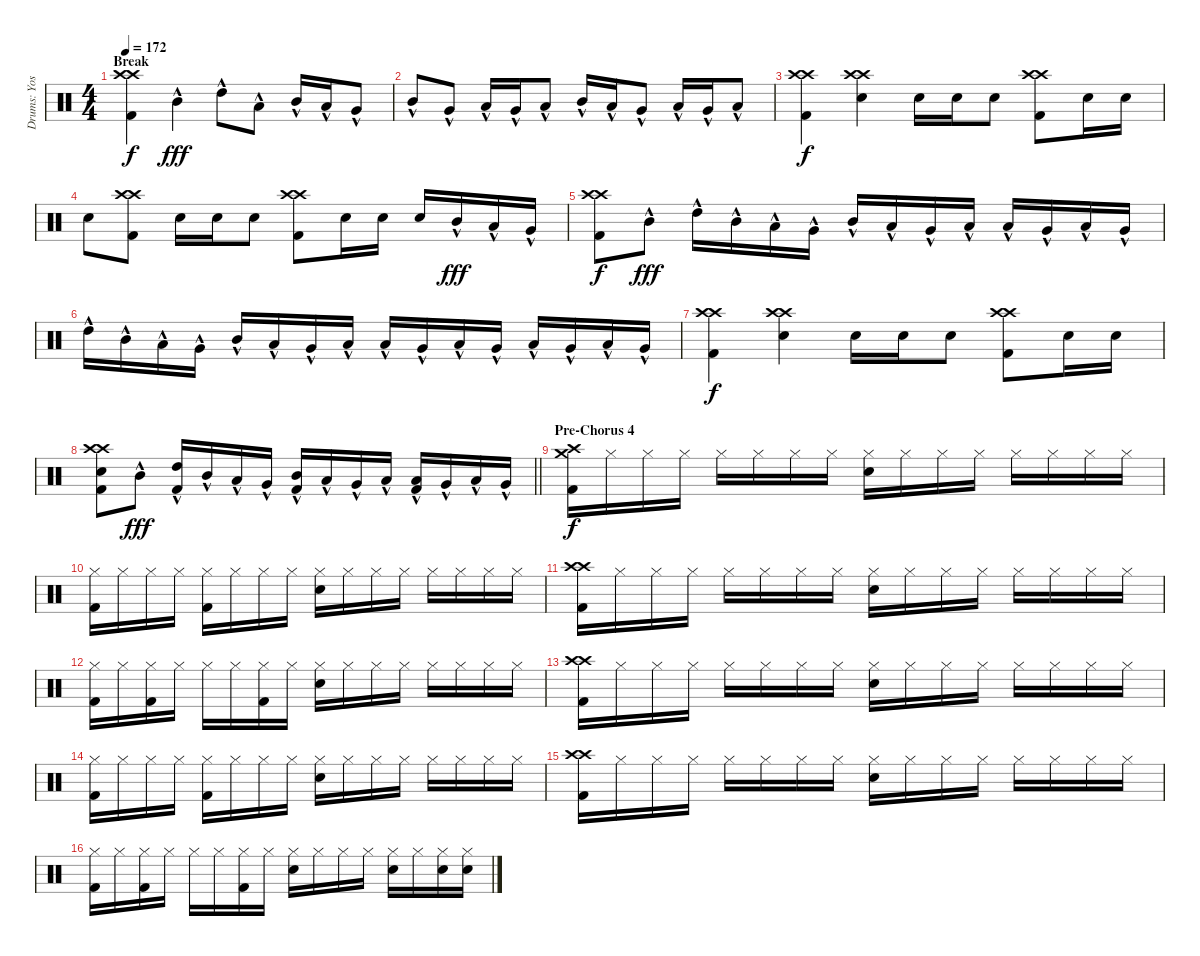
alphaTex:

\track ("Drums: Yoshiki" "Drums: Yos") {instrument percussion}
\staff {score}
\articulation defaults
\ts (4 4)
\section ("" "Break")
\tempo 172
\clef neutral
\ks c
("Crash high (hit)" "Crash high (hit)" "Kick (hit) 2").4{dy f} "Mid Tom (hit)"{hac}.4{dy fff} "High Tom (hit)"{hac}.8 "Low Tom (hit)"{hac}.8 "Mid Tom (hit)"{hac}.16 "Low Tom (hit)"{hac}.16 "Very Low Tom (hit)"{hac}.8 |
"Mid Tom (hit)"{hac}.8 "Very Low Tom (hit)"{hac}.8 "Low Tom (hit)"{hac}.16 "Very Low Tom (hit)"{hac}.16 "Low Floor Tom (hit)"{hac}.8 "Mid Tom (hit)"{hac}.16 "Low Tom (hit)"{hac}.16 "Very Low Tom (hit)"{hac}.8 "Low Tom (hit)"{hac}.16 "Very Low Tom (hit)"{hac}.16 "Low Floor Tom (hit)"{hac}.8 |
("Crash high (hit)" "Crash high (hit)" "Kick (hit) 2").4{dy f} ("Crash high (hit)" "Crash high (hit)" "Snare (hit) 2").4 "Snare (hit) 2".16 "Snare (hit) 2".16 "Snare (hit) 2".8 ("Crash high (hit)" "Crash high (hit)" "Kick (hit) 2").8 "Snare (hit) 2".16 "Snare (hit) 2".16 |
"Snare (hit) 2".8 ("Crash high (hit)" "Crash high (hit)" "Kick (hit) 2").8 "Snare (hit) 2".16 "Snare (hit) 2".16 "Snare (hit) 2".8 ("Crash high (hit)" "Crash high (hit)" "Kick (hit) 2").8 "Snare (hit) 2".16 "Snare (hit) 2".16 "Snare (hit) 2".16 "Mid Tom (hit)"{hac}.16{dy fff} "Low Tom (hit)"{hac}.16 "Very Low Tom (hit)"{hac}.16 |
("Crash high (hit)" "Crash high (hit)" "Kick (hit) 2").8{dy f} "Mid Tom (hit)"{hac}.8{dy fff} "High Tom (hit)"{hac}.16 "Mid Tom (hit)"{hac}.16 "Low Tom (hit)"{hac}.16 "Very Low Tom (hit)"{hac}.16 "Mid Tom (hit)"{hac}.16 "Low Tom (hit)"{hac}.16 "Very Low Tom (hit)"{hac}.16 "Low Floor Tom (hit)"{hac}.16 "Low Tom (hit)"{hac}.16 "Very Low Tom (hit)"{hac}.16 "Low Floor Tom (hit)"{hac}.16 "Very Low Tom (hit)"{hac}.16 |
"High Tom (hit)"{hac}.16 "Mid Tom (hit)"{hac}.16 "Low Tom (hit)"{hac}.16 "Very Low Tom (hit)"{hac}.16 "Mid Tom (hit)"{hac}.16 "Low Tom (hit)"{hac}.16 "Very Low Tom (hit)"{hac}.16 "Low Floor Tom (hit)"{hac}.16 "Low Tom (hit)"{hac}.16 "Very Low Tom (hit)"{hac}.16 "Low Floor Tom (hit)"{hac}.16 "Very Low Tom (hit)"{hac}.16 "Low Tom (hit)"{hac}.16 "Very Low Tom (hit)"{hac}.16 "Low Floor Tom (hit)"{hac}.16 "Very Low Tom (hit)"{hac}.16 |
("Crash high (hit)" "Crash high (hit)" "Kick (hit) 2").4{dy f} ("Crash high (hit)" "Crash high (hit)" "Snare (hit) 2").4 "Snare (hit) 2".16 "Snare (hit) 2".16 "Snare (hit) 2".8 ("Crash high (hit)" "Crash high (hit)" "Kick (hit) 2").8 "Snare (hit) 2".16 "Snare (hit) 2".16 |
\barLineRight lightlight
("Crash high (hit)" "Crash high (hit)" "Snare (hit) 2" "Kick (hit) 2").8 "Mid Tom (hit)"{hac}.8{dy fff} ("High Tom (hit)"{hac} "Kick (hit) 2").16 "Mid Tom (hit)"{hac}.16 "Low Tom (hit)"{hac}.16 "Very Low Tom (hit)"{hac}.16 ("Mid Tom (hit)"{hac} "Kick (hit) 2").16 "Low Tom (hit)"{hac}.16 "Very Low Tom (hit)"{hac}.16 "Low Floor Tom (hit)"{hac}.16 ("Low Tom (hit)"{hac} "Kick (hit) 2").16 "Very Low Tom (hit)"{hac}.16 "Low Floor Tom (hit)"{hac}.16 "Very Low Tom (hit)"{hac}.16 |
\section ("" "Pre-Chorus 4")
("Crash high (hit)" "Crash medium (hit)" "Kick (hit) 2").16{dy f} "Hi-Hat (closed)".16 "Hi-Hat (closed)".16 "Hi-Hat (closed)".16 "Hi-Hat (closed)".16 "Hi-Hat (closed)".16 "Hi-Hat (closed)".16 "Hi-Hat (closed)".16 ("Hi-Hat (closed)" "Snare (hit) 2").16 "Hi-Hat (closed)".16 "Hi-Hat (closed)".16 "Hi-Hat (closed)".16 "Hi-Hat (closed)".16 "Hi-Hat (closed)".16 "Hi-Hat (closed)".16 "Hi-Hat (closed)".16 |
("Hi-Hat (closed)" "Kick (hit) 2").16 "Hi-Hat (closed)".16 "Hi-Hat (closed)".16 "Hi-Hat (closed)".16 ("Hi-Hat (closed)" "Kick (hit) 2").16 "Hi-Hat (closed)".16 "Hi-Hat (closed)".16 "Hi-Hat (closed)".16 ("Hi-Hat (closed)" "Snare (hit) 2").16 "Hi-Hat (closed)".16 "Hi-Hat (closed)".16 "Hi-Hat (closed)".16 "Hi-Hat (closed)".16 "Hi-Hat (closed)".16 "Hi-Hat (closed)".16 "Hi-Hat (closed)".16 |
("Crash high (hit)" "Crash high (hit)" "Kick (hit) 2").16 "Hi-Hat (closed)".16 "Hi-Hat (closed)".16 "Hi-Hat (closed)".16 "Hi-Hat (closed)".16 "Hi-Hat (closed)".16 "Hi-Hat (closed)".16 "Hi-Hat (closed)".16 ("Hi-Hat (closed)" "Snare (hit) 2").16 "Hi-Hat (closed)".16 "Hi-Hat (closed)".16 "Hi-Hat (closed)".16 "Hi-Hat (closed)".16 "Hi-Hat (closed)".16 "Hi-Hat (closed)".16 "Hi-Hat (closed)".16 |
("Hi-Hat (closed)" "Kick (hit) 2").16 "Hi-Hat (closed)".16 ("Hi-Hat (closed)" "Kick (hit) 2").16 "Hi-Hat (closed)".16 "Hi-Hat (closed)".16 "Hi-Hat (closed)".16 ("Hi-Hat (closed)" "Kick (hit) 2").16 "Hi-Hat (closed)".16 ("Hi-Hat (closed)" "Snare (hit) 2").16 "Hi-Hat (closed)".16 "Hi-Hat (closed)".16 "Hi-Hat (closed)".16 "Hi-Hat (closed)".16 "Hi-Hat (closed)".16 "Hi-Hat (closed)".16 "Hi-Hat (closed)".16 |
("Crash high (hit)" "Crash high (hit)" "Kick (hit) 2").16 "Hi-Hat (closed)".16 "Hi-Hat (closed)".16 "Hi-Hat (closed)".16 "Hi-Hat (closed)".16 "Hi-Hat (closed)".16 "Hi-Hat (closed)".16 "Hi-Hat (closed)".16 ("Hi-Hat (closed)" "Snare (hit) 2").16 "Hi-Hat (closed)".16 "Hi-Hat (closed)".16 "Hi-Hat (closed)".16 "Hi-Hat (closed)".16 "Hi-Hat (closed)".16 "Hi-Hat (closed)".16 "Hi-Hat (closed)".16 |
("Hi-Hat (closed)" "Kick (hit) 2").16 "Hi-Hat (closed)".16 "Hi-Hat (closed)".16 "Hi-Hat (closed)".16 ("Hi-Hat (closed)" "Kick (hit) 2").16 "Hi-Hat (closed)".16 "Hi-Hat (closed)".16 "Hi-Hat (closed)".16 ("Hi-Hat (closed)" "Snare (hit) 2").16 "Hi-Hat (closed)".16 "Hi-Hat (closed)".16 "Hi-Hat (closed)".16 "Hi-Hat (closed)".16 "Hi-Hat (closed)".16 "Hi-Hat (closed)".16 "Hi-Hat (closed)".16 |
("Crash high (hit)" "Crash high (hit)" "Kick (hit) 2").16 "Hi-Hat (closed)".16 "Hi-Hat (closed)".16 "Hi-Hat (closed)".16 "Hi-Hat (closed)".16 "Hi-Hat (closed)".16 "Hi-Hat (closed)".16 "Hi-Hat (closed)".16 ("Hi-Hat (closed)" "Snare (hit) 2").16 "Hi-Hat (closed)".16 "Hi-Hat (closed)".16 "Hi-Hat (closed)".16 "Hi-Hat (closed)".16 "Hi-Hat (closed)".16 "Hi-Hat (closed)".16 "Hi-Hat (closed)".16 |
("Hi-Hat (closed)" "Kick (hit) 2").16 "Hi-Hat (closed)".16 ("Hi-Hat (closed)" "Kick (hit) 2").16 "Hi-Hat (closed)".16 "Hi-Hat (closed)".16 "Hi-Hat (closed)".16 ("Hi-Hat (closed)" "Kick (hit) 2").16 "Hi-Hat (closed)".16 ("Hi-Hat (closed)" "Snare (hit) 2").16 "Hi-Hat (closed)".16 "Hi-Hat (closed)".16 "Hi-Hat (closed)".16 ("Hi-Hat (closed)" "Snare (hit) 2").16 "Hi-Hat (closed)".16 ("Hi-Hat (closed)" "Snare (hit) 2").16 ("Hi-Hat (closed)" "Snare (hit) 2").16
